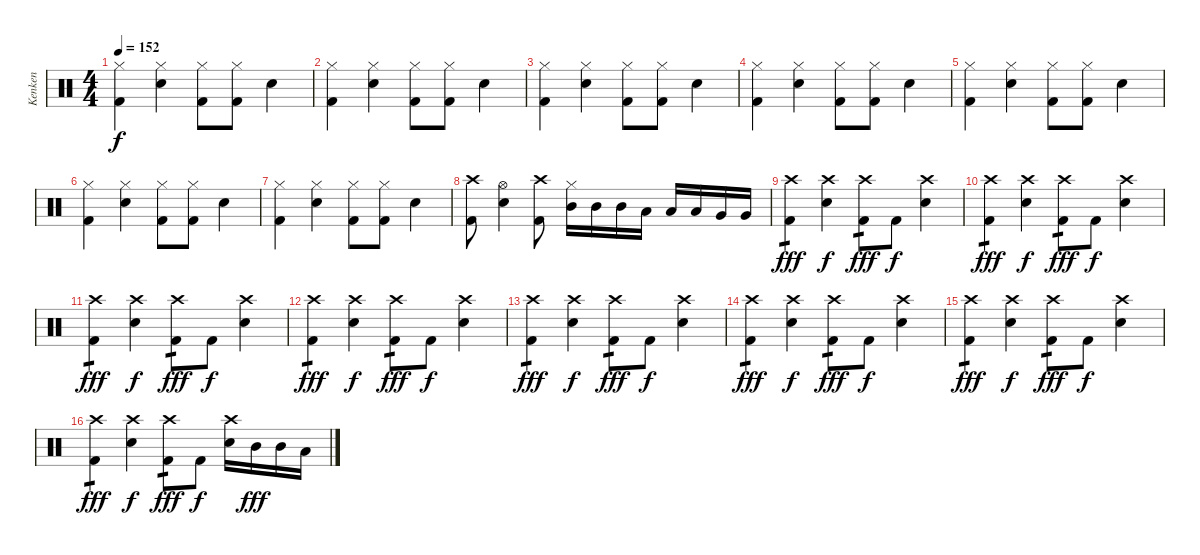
\track ("Kenken" "Kenken") {instrument percussion}
\staff {score}
\articulation defaults
\ts (4 4)
\tempo 152
\clef neutral
\ks c
("Hi-Hat (closed)" "Kick (hit) 2").4{dy f} ("Hi-Hat (closed)" "Electric Snare (hit)").4 ("Hi-Hat (closed)" "Kick (hit) 2").8 ("Hi-Hat (closed)" "Kick (hit) 2").8 "Electric Snare (hit)".4 |
("Hi-Hat (closed)" "Kick (hit) 2").4 ("Hi-Hat (closed)" "Electric Snare (hit)").4 ("Hi-Hat (closed)" "Kick (hit) 2").8 ("Hi-Hat (closed)" "Kick (hit) 2").8 "Electric Snare (hit)".4 |
("Hi-Hat (closed)" "Kick (hit) 2").4 ("Hi-Hat (closed)" "Electric Snare (hit)").4 ("Hi-Hat (closed)" "Kick (hit) 2").8 ("Hi-Hat (closed)" "Kick (hit) 2").8 "Electric Snare (hit)".4 |
("Hi-Hat (closed)" "Kick (hit) 2").4 ("Hi-Hat (closed)" "Electric Snare (hit)").4 ("Hi-Hat (closed)" "Kick (hit) 2").8 ("Hi-Hat (closed)" "Kick (hit) 2").8 "Electric Snare (hit)".4 |
("Hi-Hat (closed)" "Kick (hit) 2").4 ("Hi-Hat (closed)" "Electric Snare (hit)").4 ("Hi-Hat (closed)" "Kick (hit) 2").8 ("Hi-Hat (closed)" "Kick (hit) 2").8 "Electric Snare (hit)".4 |
("Hi-Hat (closed)" "Kick (hit) 2").4 ("Hi-Hat (closed)" "Electric Snare (hit)").4 ("Hi-Hat (closed)" "Kick (hit) 2").8 ("Hi-Hat (closed)" "Kick (hit) 2").8 "Electric Snare (hit)".4 |
("Hi-Hat (closed)" "Kick (hit) 2").4 ("Hi-Hat (closed)" "Electric Snare (hit)").4 ("Hi-Hat (closed)" "Kick (hit) 2").8 ("Hi-Hat (closed)" "Kick (hit) 2").8 "Electric Snare (hit)".4 |
("Crash high (hit)" "Kick (hit) 2").8 ("Hi-Hat (open)" "Electric Snare (hit)").4 ("Crash high (hit)" "Kick (hit) 2").8 ("Hi-Hat (closed)" "Mid Tom (hit)").16 "Mid Tom (hit)".16 "Mid Tom (hit)".16 "Low Tom (hit)".16 "Low Tom (hit)".16 "Low Tom (hit)".16 "Very Low Tom (hit)".16 "Very Low Tom (hit)".16 |
("Crash high (hit)" "Kick (hit) 2").4{tp 1 dy fff} ("Crash high (hit)" "Electric Snare (hit)").4{dy f} ("Crash high (hit)" "Kick (hit) 2").8{tp 1 dy fff} "Kick (hit) 2".8{dy f} ("Crash high (hit)" "Electric Snare (hit)").4 |
("Crash high (hit)" "Kick (hit) 2").4{tp 1 dy fff} ("Crash high (hit)" "Electric Snare (hit)").4{dy f} ("Crash high (hit)" "Kick (hit) 2").8{tp 1 dy fff} "Kick (hit) 2".8{dy f} ("Crash high (hit)" "Electric Snare (hit)").4 |
("Crash high (hit)" "Kick (hit) 2").4{tp 1 dy fff} ("Crash high (hit)" "Electric Snare (hit)").4{dy f} ("Crash high (hit)" "Kick (hit) 2").8{tp 1 dy fff} "Kick (hit) 2".8{dy f} ("Crash high (hit)" "Electric Snare (hit)").4 |
("Crash high (hit)" "Kick (hit) 2").4{tp 1 dy fff} ("Crash high (hit)" "Electric Snare (hit)").4{dy f} ("Crash high (hit)" "Kick (hit) 2").8{tp 1 dy fff} "Kick (hit) 2".8{dy f} ("Crash high (hit)" "Electric Snare (hit)").4 |
("Crash high (hit)" "Kick (hit) 2").4{tp 1 dy fff} ("Crash high (hit)" "Electric Snare (hit)").4{dy f} ("Crash high (hit)" "Kick (hit) 2").8{tp 1 dy fff} "Kick (hit) 2".8{dy f} ("Crash high (hit)" "Electric Snare (hit)").4 |
("Crash high (hit)" "Kick (hit) 2").4{tp 1 dy fff} ("Crash high (hit)" "Electric Snare (hit)").4{dy f} ("Crash high (hit)" "Kick (hit) 2").8{tp 1 dy fff} "Kick (hit) 2".8{dy f} ("Crash high (hit)" "Electric Snare (hit)").4 |
("Crash high (hit)" "Kick (hit) 2").4{tp 1 dy fff} ("Crash high (hit)" "Electric Snare (hit)").4{dy f} ("Crash high (hit)" "Kick (hit) 2").8{tp 1 dy fff} "Kick (hit) 2".8{dy f} ("Crash high (hit)" "Electric Snare (hit)").4 |
("Crash high (hit)" "Kick (hit) 2").4{tp 1 dy fff} ("Crash high (hit)" "Electric Snare (hit)").4{dy f} ("Crash high (hit)" "Kick (hit) 2").8{tp 1 dy fff} "Kick (hit) 2".8{dy f} ("Crash high (hit)" "Electric Snare (hit)").16 "Mid Tom (hit)".16{dy fff} "Mid Tom (hit)".16 "Low Tom (hit)".16
